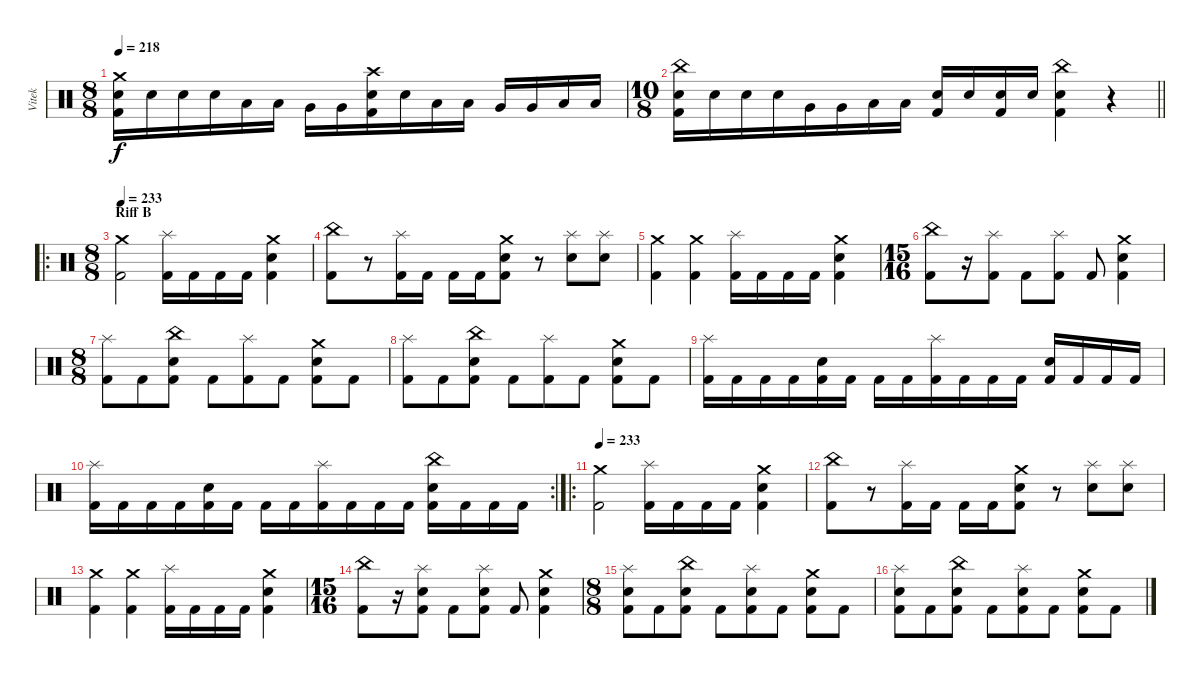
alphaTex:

\track ("Vitek" "Vitek") {instrument percussion}
\staff {score}
\articulation defaults
\ts (8 8)
\tempo 218
\clef neutral
\ks c
("Crash medium (hit)" "Electric Snare (hit)" "Kick (hit) 2").16{dy f} "Electric Snare (hit)".16 "Electric Snare (hit)".16 "Electric Snare (hit)".16 "Low Tom (hit)".16 "Low Tom (hit)".16 "Very Low Tom (hit)".16 "Very Low Tom (hit)".16 ("Crash high (hit)" "Electric Snare (hit)" "Kick (hit) 2").16 "Electric Snare (hit)".16 "Low Tom (hit)".16 "Low Tom (hit)".16 "Very Low Tom (hit)".16 "Very Low Tom (hit)".16 "Low Floor Tom (hit)".16 "Low Floor Tom (hit)".16 |
\ts (10 8)
\barLineRight lightlight
("China (hit)" "Electric Snare (hit)" "Kick (hit) 2").16 "Electric Snare (hit)".16 "Electric Snare (hit)".16 "Electric Snare (hit)".16 "Very Low Tom (hit)".16 "Very Low Tom (hit)".16 "Low Floor Tom (hit)".16 "Low Floor Tom (hit)".16 ("Electric Snare (hit)" "Kick (hit) 2").16 "Electric Snare (hit)".16 ("Electric Snare (hit)" "Kick (hit) 2").16 "Electric Snare (hit)".16 ("China (hit)" "Electric Snare (hit)" "Kick (hit) 2").4 r.4 |
\ro
\ts (8 8)
\section ("" "Riff B")
\tempo 233
("Crash medium (hit)" "Kick (hit) 2").2 ("Splash (hit)" "Kick (hit) 2").16 "Kick (hit) 2".16 "Kick (hit) 2".16 "Kick (hit) 2".16 ("Crash medium (hit)" "Electric Snare (hit)" "Kick (hit) 2").4 |
("China (hit)" "Kick (hit) 2").8 r.8 ("Splash (hit)" "Kick (hit) 2").16 "Kick (hit) 2".16 "Kick (hit) 2".16 "Kick (hit) 2".16 ("Crash medium (hit)" "Electric Snare (hit)" "Kick (hit) 2").8 r.8 ("Splash (hit)" "Electric Snare (hit)").8 ("Splash (hit)" "Electric Snare (hit)").8 |
("Crash medium (hit)" "Kick (hit) 2").4 ("Crash medium (hit)" "Kick (hit) 2").4 ("Splash (hit)" "Kick (hit) 2").16 "Kick (hit) 2".16 "Kick (hit) 2".16 "Kick (hit) 2".16 ("Crash medium (hit)" "Electric Snare (hit)" "Kick (hit) 2").4 |
\ts (15 16)
("China (hit)" "Kick (hit) 2").8 r.16 ("Splash (hit)" "Kick (hit) 2").8 "Kick (hit) 2".8 ("Splash (hit)" "Kick (hit) 2").8 "Kick (hit) 2".8 ("Crash medium (hit)" "Electric Snare (hit)" "Kick (hit) 2").4 |
\ts (8 8)
("Splash (hit)" "Kick (hit) 2").8 "Kick (hit) 2".8 ("China (hit)" "Electric Snare (hit)" "Kick (hit) 2").8 "Kick (hit) 2".8 ("Splash (hit)" "Kick (hit) 2").8 "Kick (hit) 2".8 ("Crash medium (hit)" "Electric Snare (hit)" "Kick (hit) 2").8 "Kick (hit) 2".8 |
("Splash (hit)" "Kick (hit) 2").8 "Kick (hit) 2".8 ("China (hit)" "Electric Snare (hit)" "Kick (hit) 2").8 "Kick (hit) 2".8 ("Splash (hit)" "Kick (hit) 2").8 "Kick (hit) 2".8 ("Crash medium (hit)" "Electric Snare (hit)" "Kick (hit) 2").8 "Kick (hit) 2".8 |
("Splash (hit)" "Kick (hit) 2").16 "Kick (hit) 2".16 "Kick (hit) 2".16 "Kick (hit) 2".16 ("Electric Snare (hit)" "Kick (hit) 2").16 "Kick (hit) 2".16 "Kick (hit) 2".16 "Kick (hit) 2".16 ("Splash (hit)" "Kick (hit) 2").16 "Kick (hit) 2".16 "Kick (hit) 2".16 "Kick (hit) 2".16 ("Electric Snare (hit)" "Kick (hit) 2").16 "Kick (hit) 2".16 "Kick (hit) 2".16 "Kick (hit) 2".16 |
\rc 2
("Splash (hit)" "Kick (hit) 2").16 "Kick (hit) 2".16 "Kick (hit) 2".16 "Kick (hit) 2".16 ("Electric Snare (hit)" "Kick (hit) 2").16 "Kick (hit) 2".16 "Kick (hit) 2".16 "Kick (hit) 2".16 ("Splash (hit)" "Kick (hit) 2").16 "Kick (hit) 2".16 "Kick (hit) 2".16 "Kick (hit) 2".16 ("China (hit)" "Electric Snare (hit)" "Kick (hit) 2").16 "Kick (hit) 2".16 "Kick (hit) 2".16 "Kick (hit) 2".16 |
\ro
\tempo 233
("Crash medium (hit)" "Kick (hit) 2").2 ("Splash (hit)" "Kick (hit) 2").16 "Kick (hit) 2".16 "Kick (hit) 2".16 "Kick (hit) 2".16 ("Crash medium (hit)" "Electric Snare (hit)" "Kick (hit) 2").4 |
("China (hit)" "Kick (hit) 2").8 r.8 ("Splash (hit)" "Kick (hit) 2").16 "Kick (hit) 2".16 "Kick (hit) 2".16 "Kick (hit) 2".16 ("Crash medium (hit)" "Electric Snare (hit)" "Kick (hit) 2").8 r.8 ("Splash (hit)" "Electric Snare (hit)").8 ("Splash (hit)" "Electric Snare (hit)").8 |
("Crash medium (hit)" "Kick (hit) 2").4 ("Crash medium (hit)" "Kick (hit) 2").4 ("Splash (hit)" "Kick (hit) 2").16 "Kick (hit) 2".16 "Kick (hit) 2".16 "Kick (hit) 2".16 ("Crash medium (hit)" "Electric Snare (hit)" "Kick (hit) 2").4 |
\ts (15 16)
("China (hit)" "Kick (hit) 2").8 r.16 ("Splash (hit)" "Electric Snare (hit)" "Kick (hit) 2").8 "Kick (hit) 2".8 ("Splash (hit)" "Electric Snare (hit)" "Kick (hit) 2").8 "Kick (hit) 2".8 ("Crash medium (hit)" "Electric Snare (hit)" "Kick (hit) 2").4 |
\ts (8 8)
("Splash (hit)" "Electric Snare (hit)" "Kick (hit) 2").8 "Kick (hit) 2".8 ("China (hit)" "Electric Snare (hit)" "Kick (hit) 2").8 "Kick (hit) 2".8 ("Splash (hit)" "Electric Snare (hit)" "Kick (hit) 2").8 "Kick (hit) 2".8 ("Crash medium (hit)" "Electric Snare (hit)" "Kick (hit) 2").8 "Kick (hit) 2".8 |
("Splash (hit)" "Electric Snare (hit)" "Kick (hit) 2").8 "Kick (hit) 2".8 ("China (hit)" "Electric Snare (hit)" "Kick (hit) 2").8 "Kick (hit) 2".8 ("Splash (hit)" "Electric Snare (hit)" "Kick (hit) 2").8 "Kick (hit) 2".8 ("Crash medium (hit)" "Electric Snare (hit)" "Kick (hit) 2").8 "Kick (hit) 2".8
